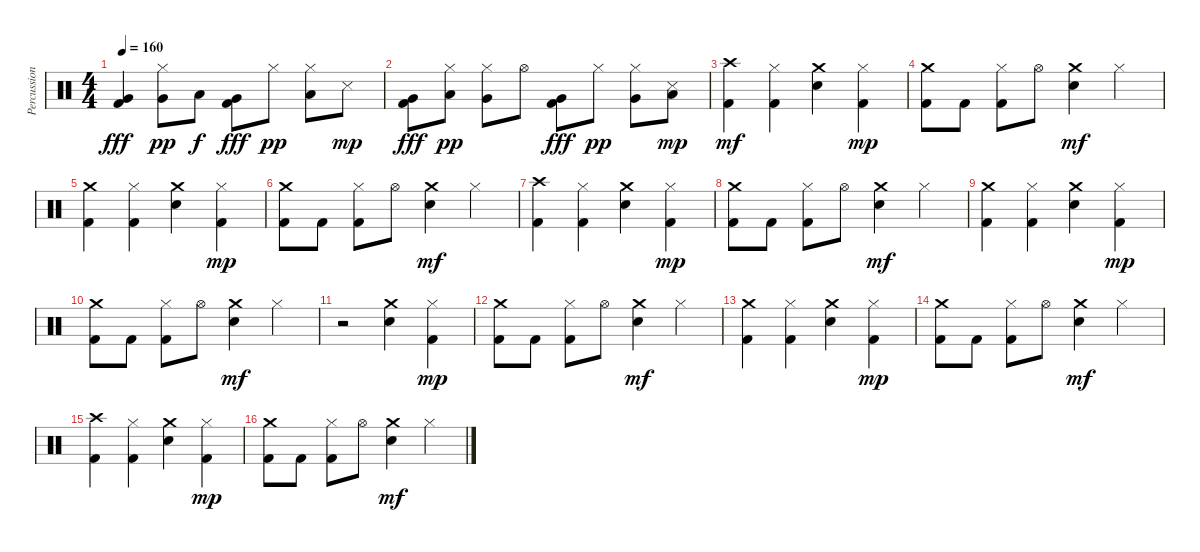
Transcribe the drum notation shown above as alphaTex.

\track ("Percussion" "Percussion") {instrument percussion}
\staff {score}
\articulation defaults
\ts (4 4)
\tempo 160
\clef neutral
\ks c
("Very Low Tom (hit)" "Kick (hit) 2").4{dy fff} ("Hi-Hat (closed)" "Very Low Tom (hit)").8{dy pp} "Low Tom (hit)".8{dy f} ("Very Low Tom (hit)" "Kick (hit) 2").8{dy fff} "Hi-Hat (closed)".8{dy pp} ("Hi-Hat (closed)" "Low Tom (hit)").8 "Snare (side stick) 3".8{dy mp} |
("Very Low Tom (hit)" "Kick (hit) 2").8{dy fff} ("Hi-Hat (closed)" "Low Tom (hit)").8{dy pp} ("Hi-Hat (closed)" "Very Low Tom (hit)").8 "Hi-Hat (open)".8 ("Very Low Tom (hit)" "Kick (hit) 2").8{dy fff} "Hi-Hat (closed)".8{dy pp} ("Hi-Hat (closed)" "Very Low Tom (hit)").8 ("Snare (side stick) 3" "Low Tom (hit)").8{dy mp} |
("Crash high (hit)" "Kick (hit) 2").4{dy mf} ("Hi-Hat (closed)" "Kick (hit) 2").4 ("Crash medium (hit)" "Electric Snare (hit)").4 ("Hi-Hat (closed)" "Kick (hit) 2").4{dy mp} |
("Crash medium (hit)" "Kick (hit) 2").8 "Kick (hit) 2".8 ("Hi-Hat (closed)" "Kick (hit) 2").8 "Hi-Hat (open)".8 ("Crash medium (hit)" "Electric Snare (hit)").4{dy mf} "Hi-Hat (closed)".4 |
("Crash medium (hit)" "Kick (hit) 2").4 ("Hi-Hat (closed)" "Kick (hit) 2").4 ("Crash medium (hit)" "Electric Snare (hit)").4 ("Hi-Hat (closed)" "Kick (hit) 2").4{dy mp} |
("Crash medium (hit)" "Kick (hit) 2").8 "Kick (hit) 2".8 ("Hi-Hat (closed)" "Kick (hit) 2").8 "Hi-Hat (open)".8 ("Crash medium (hit)" "Electric Snare (hit)").4{dy mf} "Hi-Hat (closed)".4 |
("Crash high (hit)" "Kick (hit) 2").4 ("Hi-Hat (closed)" "Kick (hit) 2").4 ("Crash medium (hit)" "Electric Snare (hit)").4 ("Hi-Hat (closed)" "Kick (hit) 2").4{dy mp} |
("Crash medium (hit)" "Kick (hit) 2").8 "Kick (hit) 2".8 ("Hi-Hat (closed)" "Kick (hit) 2").8 "Hi-Hat (open)".8 ("Crash medium (hit)" "Electric Snare (hit)").4{dy mf} "Hi-Hat (closed)".4 |
("Crash medium (hit)" "Kick (hit) 2").4 ("Hi-Hat (closed)" "Kick (hit) 2").4 ("Crash medium (hit)" "Electric Snare (hit)").4 ("Hi-Hat (closed)" "Kick (hit) 2").4{dy mp} |
("Crash medium (hit)" "Kick (hit) 2").8 "Kick (hit) 2".8 ("Hi-Hat (closed)" "Kick (hit) 2").8 "Hi-Hat (open)".8 ("Crash medium (hit)" "Electric Snare (hit)").4{dy mf} "Hi-Hat (closed)".4 |
r.2 ("Crash medium (hit)" "Electric Snare (hit)").4 ("Hi-Hat (closed)" "Kick (hit) 2").4{dy mp} |
("Crash medium (hit)" "Kick (hit) 2").8 "Kick (hit) 2".8 ("Hi-Hat (closed)" "Kick (hit) 2").8 "Hi-Hat (open)".8 ("Crash medium (hit)" "Electric Snare (hit)").4{dy mf} "Hi-Hat (closed)".4 |
("Crash medium (hit)" "Kick (hit) 2").4 ("Hi-Hat (closed)" "Kick (hit) 2").4 ("Crash medium (hit)" "Electric Snare (hit)").4 ("Hi-Hat (closed)" "Kick (hit) 2").4{dy mp} |
("Crash medium (hit)" "Kick (hit) 2").8 "Kick (hit) 2".8 ("Hi-Hat (closed)" "Kick (hit) 2").8 "Hi-Hat (open)".8 ("Crash medium (hit)" "Electric Snare (hit)").4{dy mf} "Hi-Hat (closed)".4 |
("Crash high (hit)" "Kick (hit) 2").4 ("Hi-Hat (closed)" "Kick (hit) 2").4 ("Crash medium (hit)" "Electric Snare (hit)").4 ("Hi-Hat (closed)" "Kick (hit) 2").4{dy mp} |
("Crash medium (hit)" "Kick (hit) 2").8 "Kick (hit) 2".8 ("Hi-Hat (closed)" "Kick (hit) 2").8 "Hi-Hat (open)".8 ("Crash medium (hit)" "Electric Snare (hit)").4{dy mf} "Hi-Hat (closed)".4
